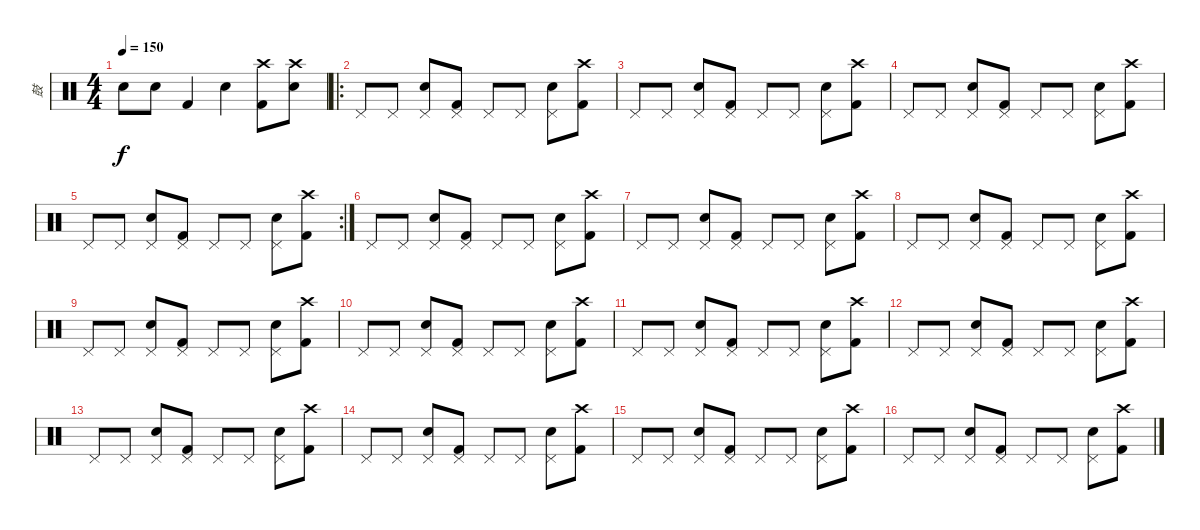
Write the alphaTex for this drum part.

\track ("鼓" "鼓") {instrument percussion}
\staff {score}
\articulation defaults
\ts (4 4)
\tempo 150
\clef neutral
\ks c "Electric Snare (hit)".8{dy f} "Electric Snare (hit)".8 "Kick (hit) 2".4 "Electric Snare (hit)".4
("Crash high (hit)" "Kick (hit) 2").8 ("Crash high (hit)" "Electric Snare (hit)").8 |
\ro "Pedal Hi-Hat (hit)".8 "Pedal Hi-Hat (hit)".8
("Pedal Hi-Hat (hit)" "Electric Snare (hit)").8 ("Pedal Hi-Hat (hit)" "Kick (hit) 2").8 "Pedal Hi-Hat (hit)".8 "Pedal Hi-Hat (hit)".8 ("Pedal Hi-Hat (hit)" "Electric Snare (hit)").8 ("Crash high (hit)" "Kick (hit) 2").8 |
"Pedal Hi-Hat (hit)".8 "Pedal Hi-Hat (hit)".8 ("Pedal Hi-Hat (hit)" "Electric Snare (hit)").8 ("Pedal Hi-Hat (hit)" "Kick (hit) 2").8 "Pedal Hi-Hat (hit)".8 "Pedal Hi-Hat (hit)".8 ("Pedal Hi-Hat (hit)" "Electric Snare (hit)").8 ("Crash high (hit)" "Kick (hit) 2").8 |
"Pedal Hi-Hat (hit)".8 "Pedal Hi-Hat (hit)".8 ("Pedal Hi-Hat (hit)" "Electric Snare (hit)").8 ("Pedal Hi-Hat (hit)" "Kick (hit) 2").8 "Pedal Hi-Hat (hit)".8 "Pedal Hi-Hat (hit)".8 ("Pedal Hi-Hat (hit)" "Electric Snare (hit)").8 ("Crash high (hit)" "Kick (hit) 2").8 |
\rc 2 "Pedal Hi-Hat (hit)".8 "Pedal Hi-Hat (hit)".8
("Pedal Hi-Hat (hit)" "Electric Snare (hit)").8 ("Pedal Hi-Hat (hit)" "Kick (hit) 2").8 "Pedal Hi-Hat (hit)".8 "Pedal Hi-Hat (hit)".8 ("Pedal Hi-Hat (hit)" "Electric Snare (hit)").8 ("Crash high (hit)" "Kick (hit) 2").8 |
"Pedal Hi-Hat (hit)".8 "Pedal Hi-Hat (hit)".8 ("Pedal Hi-Hat (hit)" "Electric Snare (hit)").8 ("Pedal Hi-Hat (hit)" "Kick (hit) 2").8 "Pedal Hi-Hat (hit)".8 "Pedal Hi-Hat (hit)".8 ("Pedal Hi-Hat (hit)" "Electric Snare (hit)").8 ("Crash high (hit)" "Kick (hit) 2").8 |
"Pedal Hi-Hat (hit)".8 "Pedal Hi-Hat (hit)".8 ("Pedal Hi-Hat (hit)" "Electric Snare (hit)").8 ("Pedal Hi-Hat (hit)" "Kick (hit) 2").8 "Pedal Hi-Hat (hit)".8 "Pedal Hi-Hat (hit)".8 ("Pedal Hi-Hat (hit)" "Electric Snare (hit)").8 ("Crash high (hit)" "Kick (hit) 2").8 |
"Pedal Hi-Hat (hit)".8 "Pedal Hi-Hat (hit)".8 ("Pedal Hi-Hat (hit)" "Electric Snare (hit)").8 ("Pedal Hi-Hat (hit)" "Kick (hit) 2").8 "Pedal Hi-Hat (hit)".8 "Pedal Hi-Hat (hit)".8 ("Pedal Hi-Hat (hit)" "Electric Snare (hit)").8 ("Crash high (hit)" "Kick (hit) 2").8 |
"Pedal Hi-Hat (hit)".8 "Pedal Hi-Hat (hit)".8 ("Pedal Hi-Hat (hit)" "Electric Snare (hit)").8 ("Pedal Hi-Hat (hit)" "Kick (hit) 2").8 "Pedal Hi-Hat (hit)".8 "Pedal Hi-Hat (hit)".8 ("Pedal Hi-Hat (hit)" "Electric Snare (hit)").8 ("Crash high (hit)" "Kick (hit) 2").8 |
"Pedal Hi-Hat (hit)".8 "Pedal Hi-Hat (hit)".8 ("Pedal Hi-Hat (hit)" "Electric Snare (hit)").8 ("Pedal Hi-Hat (hit)" "Kick (hit) 2").8 "Pedal Hi-Hat (hit)".8 "Pedal Hi-Hat (hit)".8 ("Pedal Hi-Hat (hit)" "Electric Snare (hit)").8 ("Crash high (hit)" "Kick (hit) 2").8 |
"Pedal Hi-Hat (hit)".8 "Pedal Hi-Hat (hit)".8 ("Pedal Hi-Hat (hit)" "Electric Snare (hit)").8 ("Pedal Hi-Hat (hit)" "Kick (hit) 2").8 "Pedal Hi-Hat (hit)".8 "Pedal Hi-Hat (hit)".8 ("Pedal Hi-Hat (hit)" "Electric Snare (hit)").8 ("Crash high (hit)" "Kick (hit) 2").8 |
"Pedal Hi-Hat (hit)".8 "Pedal Hi-Hat (hit)".8 ("Pedal Hi-Hat (hit)" "Electric Snare (hit)").8 ("Pedal Hi-Hat (hit)" "Kick (hit) 2").8 "Pedal Hi-Hat (hit)".8 "Pedal Hi-Hat (hit)".8 ("Pedal Hi-Hat (hit)" "Electric Snare (hit)").8 ("Crash high (hit)" "Kick (hit) 2").8 |
"Pedal Hi-Hat (hit)".8 "Pedal Hi-Hat (hit)".8 ("Pedal Hi-Hat (hit)" "Electric Snare (hit)").8 ("Pedal Hi-Hat (hit)" "Kick (hit) 2").8 "Pedal Hi-Hat (hit)".8 "Pedal Hi-Hat (hit)".8 ("Pedal Hi-Hat (hit)" "Electric Snare (hit)").8 ("Crash high (hit)" "Kick (hit) 2").8 |
"Pedal Hi-Hat (hit)".8 "Pedal Hi-Hat (hit)".8 ("Pedal Hi-Hat (hit)" "Electric Snare (hit)").8 ("Pedal Hi-Hat (hit)" "Kick (hit) 2").8 "Pedal Hi-Hat (hit)".8 "Pedal Hi-Hat (hit)".8 ("Pedal Hi-Hat (hit)" "Electric Snare (hit)").8 ("Crash high (hit)" "Kick (hit) 2").8 |
"Pedal Hi-Hat (hit)".8 "Pedal Hi-Hat (hit)".8 ("Pedal Hi-Hat (hit)" "Electric Snare (hit)").8 ("Pedal Hi-Hat (hit)" "Kick (hit) 2").8 "Pedal Hi-Hat (hit)".8 "Pedal Hi-Hat (hit)".8 ("Pedal Hi-Hat (hit)" "Electric Snare (hit)").8 ("Crash high (hit)" "Kick (hit) 2").8 |
"Pedal Hi-Hat (hit)".8 "Pedal Hi-Hat (hit)".8 ("Pedal Hi-Hat (hit)" "Electric Snare (hit)").8 ("Pedal Hi-Hat (hit)" "Kick (hit) 2").8 "Pedal Hi-Hat (hit)".8 "Pedal Hi-Hat (hit)".8 ("Pedal Hi-Hat (hit)" "Electric Snare (hit)").8 ("Crash high (hit)" "Kick (hit) 2").8
